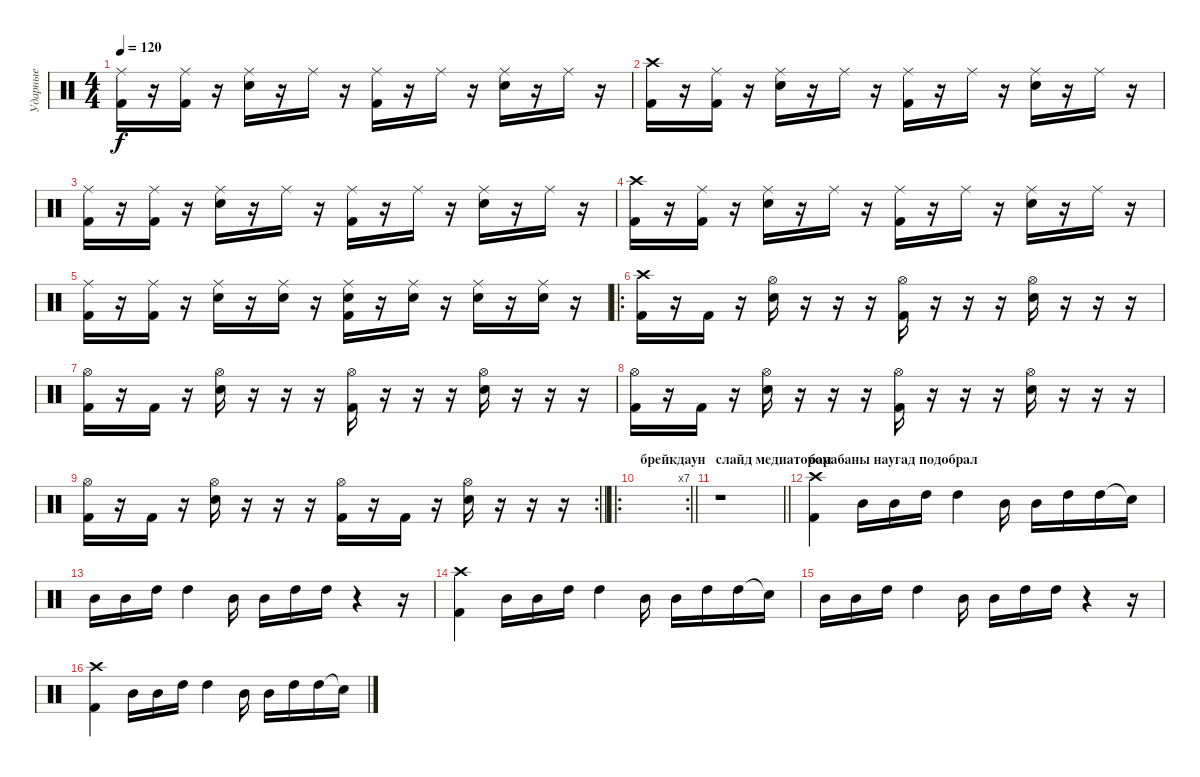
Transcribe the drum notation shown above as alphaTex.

\track ("Ударные" "Ударные") {instrument percussion}
\staff {score}
\articulation defaults
\ts (4 4)
\tempo 120
\clef neutral
\ks c
("Kick (hit) 2" "Ride (middle)").16{dy f} r.16 ("Kick (hit) 2" "Ride (middle)").16 r.16 ("Snare (hit) 2" "Ride (middle)").16 r.16 "Ride (middle)".16 r.16 ("Kick (hit) 2" "Ride (middle)").16 r.16 "Ride (middle)".16 r.16 ("Snare (hit) 2" "Ride (middle)").16 r.16 "Ride (middle)".16 r.16 |
("Kick (hit) 2" "Crash high (hit)").16 r.16 ("Kick (hit) 2" "Ride (middle)").16 r.16 ("Snare (hit) 2" "Ride (middle)").16 r.16 "Ride (middle)".16 r.16 ("Kick (hit) 2" "Ride (middle)").16 r.16 "Ride (middle)".16 r.16 ("Snare (hit) 2" "Ride (middle)").16 r.16 "Ride (middle)".16 r.16 |
("Kick (hit) 2" "Ride (middle)").16 r.16 ("Kick (hit) 2" "Ride (middle)").16 r.16 ("Snare (hit) 2" "Ride (middle)").16 r.16 "Ride (middle)".16 r.16 ("Kick (hit) 2" "Ride (middle)").16 r.16 "Ride (middle)".16 r.16 ("Snare (hit) 2" "Ride (middle)").16 r.16 "Ride (middle)".16 r.16 |
("Kick (hit) 2" "Crash high (hit)").16 r.16 ("Kick (hit) 2" "Ride (middle)").16 r.16 ("Snare (hit) 2" "Ride (middle)").16 r.16 "Ride (middle)".16 r.16 ("Kick (hit) 2" "Ride (middle)").16 r.16 "Ride (middle)".16 r.16 ("Snare (hit) 2" "Ride (middle)").16 r.16 "Ride (middle)".16 r.16 |
("Kick (hit) 2" "Ride (middle)").16 r.16 ("Kick (hit) 2" "Ride (middle)").16 r.16 ("Snare (hit) 2" "Ride (middle)").16 r.16 ("Snare (hit) 2" "Ride (middle)").16 r.16 ("Snare (hit) 2" "Kick (hit) 2" "Ride (middle)").16 r.16 ("Snare (hit) 2" "Ride (middle)").16 r.16 ("Snare (hit) 2" "Ride (middle)").16 r.16 ("Snare (hit) 2" "Ride (middle)").16 r.16 |
\ro
("Kick (hit) 2" "Crash high (hit)").16 r.16 "Kick (hit) 2".16 r.16 ("Snare (hit) 2" "Hi-Hat (open)").16 r.16 r.16 r.16 ("Kick (hit) 2" "Hi-Hat (open)").16 r.16 r.16 r.16 ("Snare (hit) 2" "Hi-Hat (open)").16 r.16 r.16 r.16 |
("Kick (hit) 2" "Hi-Hat (open)").16 r.16 "Kick (hit) 2".16 r.16 ("Snare (hit) 2" "Hi-Hat (open)").16 r.16 r.16 r.16 ("Kick (hit) 2" "Hi-Hat (open)").16 r.16 r.16 r.16 ("Snare (hit) 2" "Hi-Hat (open)").16 r.16 r.16 r.16 |
("Kick (hit) 2" "Hi-Hat (open)").16 r.16 "Kick (hit) 2".16 r.16 ("Snare (hit) 2" "Hi-Hat (open)").16 r.16 r.16 r.16 ("Kick (hit) 2" "Hi-Hat (open)").16 r.16 r.16 r.16 ("Snare (hit) 2" "Hi-Hat (open)").16 r.16 r.16 r.16 |
\rc 2
\barLineRight lightlight
("Kick (hit) 2" "Hi-Hat (open)").16 r.16 "Kick (hit) 2".16 r.16 ("Snare (hit) 2" "Hi-Hat (open)").16 r.16 r.16 r.16 ("Kick (hit) 2" "Hi-Hat (open)").16 r.16 "Kick (hit) 2".16 r.16 ("Snare (hit) 2" "Hi-Hat (open)").16 r.16 r.16 r.16 |
\ro
\rc 7
\section ("" "брейкдаун")
\barLineRight lightlight
|
\section ("" "слайд медиатором")
\barLineRight lightlight
r.1 |
\section ("" "барабаны наугад подобрал")
("Crash high (hit)" "Kick (hit) 2").4 "Mid Tom (hit)".16 "Mid Tom (hit)".16 "High Tom (hit)".16 "High Tom (hit)".4 "Mid Tom (hit)".16 "Mid Tom (hit)".16 "High Tom (hit)".16 "High Tom (hit)".16 "Snare (hit)"{t}.16 |
"Mid Tom (hit)".16 "Mid Tom (hit)".16 "High Tom (hit)".16 "High Tom (hit)".4 "Mid Tom (hit)".16 "Mid Tom (hit)".16 "High Tom (hit)".16 "High Tom (hit)".16 r.4 r.16 |
("Crash high (hit)" "Kick (hit) 2").4 "Mid Tom (hit)".16 "Mid Tom (hit)".16 "High Tom (hit)".16 "High Tom (hit)".4 "Mid Tom (hit)".16 "Mid Tom (hit)".16 "High Tom (hit)".16 "High Tom (hit)".16 "Snare (hit)"{t}.16 |
"Mid Tom (hit)".16 "Mid Tom (hit)".16 "High Tom (hit)".16 "High Tom (hit)".4 "Mid Tom (hit)".16 "Mid Tom (hit)".16 "High Tom (hit)".16 "High Tom (hit)".16 r.4 r.16 |
("Crash high (hit)" "Kick (hit) 2").4 "Mid Tom (hit)".16 "Mid Tom (hit)".16 "High Tom (hit)".16 "High Tom (hit)".4 "Mid Tom (hit)".16 "Mid Tom (hit)".16 "High Tom (hit)".16 "High Tom (hit)".16 "Snare (hit)"{t}.16
